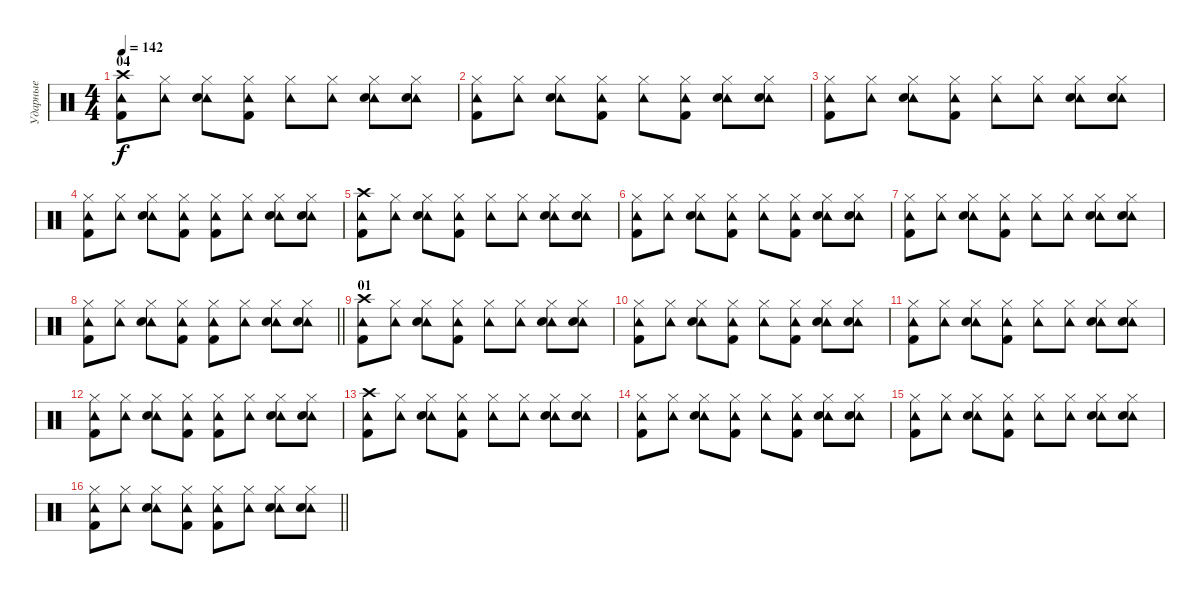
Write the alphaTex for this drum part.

\track ("Ударные" "Ударные") {instrument percussion}
\staff {score}
\articulation defaults
\ts (4 4)
\section ("" "04")
\tempo 142
\clef neutral
\ks c
("Crash high (hit)" "Tambourine (hit)" "Kick (hit) 2").8{dy f} ("Hi-Hat (closed)" "Tambourine (hit)").8 ("Hi-Hat (closed)" "Tambourine (hit)" "Electric Snare (hit)").8 ("Hi-Hat (closed)" "Tambourine (hit)" "Kick (hit) 2").8 ("Hi-Hat (closed)" "Tambourine (hit)").8 ("Hi-Hat (closed)" "Tambourine (hit)").8 ("Hi-Hat (closed)" "Tambourine (hit)" "Electric Snare (hit)").8 ("Hi-Hat (closed)" "Tambourine (hit)" "Electric Snare (hit)").8 |
("Hi-Hat (closed)" "Tambourine (hit)" "Kick (hit) 2").8 ("Hi-Hat (closed)" "Tambourine (hit)").8 ("Hi-Hat (closed)" "Tambourine (hit)" "Electric Snare (hit)").8 ("Hi-Hat (closed)" "Tambourine (hit)" "Kick (hit) 2").8 ("Hi-Hat (closed)" "Tambourine (hit)").8 ("Hi-Hat (closed)" "Tambourine (hit)" "Kick (hit) 2").8 ("Hi-Hat (closed)" "Tambourine (hit)" "Electric Snare (hit)").8 ("Hi-Hat (closed)" "Tambourine (hit)" "Electric Snare (hit)").8 |
("Hi-Hat (closed)" "Tambourine (hit)" "Kick (hit) 2").8 ("Hi-Hat (closed)" "Tambourine (hit)").8 ("Hi-Hat (closed)" "Tambourine (hit)" "Electric Snare (hit)").8 ("Hi-Hat (closed)" "Tambourine (hit)" "Kick (hit) 2").8 ("Hi-Hat (closed)" "Tambourine (hit)").8 ("Hi-Hat (closed)" "Tambourine (hit)").8 ("Hi-Hat (closed)" "Tambourine (hit)" "Electric Snare (hit)").8 ("Hi-Hat (closed)" "Tambourine (hit)" "Electric Snare (hit)").8 |
("Hi-Hat (closed)" "Tambourine (hit)" "Kick (hit) 2").8 ("Hi-Hat (closed)" "Tambourine (hit)").8 ("Hi-Hat (closed)" "Tambourine (hit)" "Electric Snare (hit)").8 ("Hi-Hat (closed)" "Tambourine (hit)" "Kick (hit) 2").8 ("Hi-Hat (closed)" "Tambourine (hit)" "Kick (hit) 2").8 ("Hi-Hat (closed)" "Tambourine (hit)").8 ("Hi-Hat (closed)" "Tambourine (hit)" "Electric Snare (hit)").8 ("Hi-Hat (closed)" "Tambourine (hit)" "Electric Snare (hit)").8 |
("Crash high (hit)" "Tambourine (hit)" "Kick (hit) 2").8 ("Hi-Hat (closed)" "Tambourine (hit)").8 ("Hi-Hat (closed)" "Tambourine (hit)" "Electric Snare (hit)").8 ("Hi-Hat (closed)" "Tambourine (hit)" "Kick (hit) 2").8 ("Hi-Hat (closed)" "Tambourine (hit)").8 ("Hi-Hat (closed)" "Tambourine (hit)").8 ("Hi-Hat (closed)" "Tambourine (hit)" "Electric Snare (hit)").8 ("Hi-Hat (closed)" "Tambourine (hit)" "Electric Snare (hit)").8 |
("Hi-Hat (closed)" "Tambourine (hit)" "Kick (hit) 2").8 ("Hi-Hat (closed)" "Tambourine (hit)").8 ("Hi-Hat (closed)" "Tambourine (hit)" "Electric Snare (hit)").8 ("Hi-Hat (closed)" "Tambourine (hit)" "Kick (hit) 2").8 ("Hi-Hat (closed)" "Tambourine (hit)").8 ("Hi-Hat (closed)" "Tambourine (hit)" "Kick (hit) 2").8 ("Hi-Hat (closed)" "Tambourine (hit)" "Electric Snare (hit)").8 ("Hi-Hat (closed)" "Tambourine (hit)" "Electric Snare (hit)").8 |
("Hi-Hat (closed)" "Tambourine (hit)" "Kick (hit) 2").8 ("Hi-Hat (closed)" "Tambourine (hit)").8 ("Hi-Hat (closed)" "Tambourine (hit)" "Electric Snare (hit)").8 ("Hi-Hat (closed)" "Tambourine (hit)" "Kick (hit) 2").8 ("Hi-Hat (closed)" "Tambourine (hit)").8 ("Hi-Hat (closed)" "Tambourine (hit)").8 ("Hi-Hat (closed)" "Tambourine (hit)" "Electric Snare (hit)").8 ("Hi-Hat (closed)" "Tambourine (hit)" "Electric Snare (hit)").8 |
\barLineRight lightlight
("Hi-Hat (closed)" "Tambourine (hit)" "Kick (hit) 2").8 ("Hi-Hat (closed)" "Tambourine (hit)").8 ("Hi-Hat (closed)" "Tambourine (hit)" "Electric Snare (hit)").8 ("Hi-Hat (closed)" "Tambourine (hit)" "Kick (hit) 2").8 ("Hi-Hat (closed)" "Tambourine (hit)" "Kick (hit) 2").8 ("Hi-Hat (closed)" "Tambourine (hit)").8 ("Hi-Hat (closed)" "Tambourine (hit)" "Electric Snare (hit)").8 ("Hi-Hat (closed)" "Tambourine (hit)" "Electric Snare (hit)").8 |
\section ("" "01")
("Crash high (hit)" "Tambourine (hit)" "Kick (hit) 2").8 ("Hi-Hat (closed)" "Tambourine (hit)").8 ("Hi-Hat (closed)" "Tambourine (hit)" "Electric Snare (hit)").8 ("Hi-Hat (closed)" "Tambourine (hit)" "Kick (hit) 2").8 ("Hi-Hat (closed)" "Tambourine (hit)").8 ("Hi-Hat (closed)" "Tambourine (hit)").8 ("Hi-Hat (closed)" "Tambourine (hit)" "Electric Snare (hit)").8 ("Hi-Hat (closed)" "Tambourine (hit)" "Electric Snare (hit)").8 |
("Hi-Hat (closed)" "Tambourine (hit)" "Kick (hit) 2").8 ("Hi-Hat (closed)" "Tambourine (hit)").8 ("Hi-Hat (closed)" "Tambourine (hit)" "Electric Snare (hit)").8 ("Hi-Hat (closed)" "Tambourine (hit)" "Kick (hit) 2").8 ("Hi-Hat (closed)" "Tambourine (hit)").8 ("Hi-Hat (closed)" "Tambourine (hit)" "Kick (hit) 2").8 ("Hi-Hat (closed)" "Tambourine (hit)" "Electric Snare (hit)").8 ("Hi-Hat (closed)" "Tambourine (hit)" "Electric Snare (hit)").8 |
("Hi-Hat (closed)" "Tambourine (hit)" "Kick (hit) 2").8 ("Hi-Hat (closed)" "Tambourine (hit)").8 ("Hi-Hat (closed)" "Tambourine (hit)" "Electric Snare (hit)").8 ("Hi-Hat (closed)" "Tambourine (hit)" "Kick (hit) 2").8 ("Hi-Hat (closed)" "Tambourine (hit)").8 ("Hi-Hat (closed)" "Tambourine (hit)").8 ("Hi-Hat (closed)" "Tambourine (hit)" "Electric Snare (hit)").8 ("Hi-Hat (closed)" "Tambourine (hit)" "Electric Snare (hit)").8 |
("Hi-Hat (closed)" "Tambourine (hit)" "Kick (hit) 2").8 ("Hi-Hat (closed)" "Tambourine (hit)").8 ("Hi-Hat (closed)" "Tambourine (hit)" "Electric Snare (hit)").8 ("Hi-Hat (closed)" "Tambourine (hit)" "Kick (hit) 2").8 ("Hi-Hat (closed)" "Tambourine (hit)" "Kick (hit) 2").8 ("Hi-Hat (closed)" "Tambourine (hit)").8 ("Hi-Hat (closed)" "Tambourine (hit)" "Electric Snare (hit)").8 ("Hi-Hat (closed)" "Tambourine (hit)" "Electric Snare (hit)").8 |
("Crash high (hit)" "Tambourine (hit)" "Kick (hit) 2").8 ("Hi-Hat (closed)" "Tambourine (hit)").8 ("Hi-Hat (closed)" "Tambourine (hit)" "Electric Snare (hit)").8 ("Hi-Hat (closed)" "Tambourine (hit)" "Kick (hit) 2").8 ("Hi-Hat (closed)" "Tambourine (hit)").8 ("Hi-Hat (closed)" "Tambourine (hit)").8 ("Hi-Hat (closed)" "Tambourine (hit)" "Electric Snare (hit)").8 ("Hi-Hat (closed)" "Tambourine (hit)" "Electric Snare (hit)").8 |
("Hi-Hat (closed)" "Tambourine (hit)" "Kick (hit) 2").8 ("Hi-Hat (closed)" "Tambourine (hit)").8 ("Hi-Hat (closed)" "Tambourine (hit)" "Electric Snare (hit)").8 ("Hi-Hat (closed)" "Tambourine (hit)" "Kick (hit) 2").8 ("Hi-Hat (closed)" "Tambourine (hit)").8 ("Hi-Hat (closed)" "Tambourine (hit)" "Kick (hit) 2").8 ("Hi-Hat (closed)" "Tambourine (hit)" "Electric Snare (hit)").8 ("Hi-Hat (closed)" "Tambourine (hit)" "Electric Snare (hit)").8 |
("Hi-Hat (closed)" "Tambourine (hit)" "Kick (hit) 2").8 ("Hi-Hat (closed)" "Tambourine (hit)").8 ("Hi-Hat (closed)" "Tambourine (hit)" "Electric Snare (hit)").8 ("Hi-Hat (closed)" "Tambourine (hit)" "Kick (hit) 2").8 ("Hi-Hat (closed)" "Tambourine (hit)").8 ("Hi-Hat (closed)" "Tambourine (hit)").8 ("Hi-Hat (closed)" "Tambourine (hit)" "Electric Snare (hit)").8 ("Hi-Hat (closed)" "Tambourine (hit)" "Electric Snare (hit)").8 |
\barLineRight lightlight
("Hi-Hat (closed)" "Tambourine (hit)" "Kick (hit) 2").8 ("Hi-Hat (closed)" "Tambourine (hit)").8 ("Hi-Hat (closed)" "Tambourine (hit)" "Electric Snare (hit)").8 ("Hi-Hat (closed)" "Tambourine (hit)" "Kick (hit) 2").8 ("Hi-Hat (closed)" "Tambourine (hit)" "Kick (hit) 2").8 ("Hi-Hat (closed)" "Tambourine (hit)").8 ("Hi-Hat (closed)" "Tambourine (hit)" "Electric Snare (hit)").8 ("Hi-Hat (closed)" "Tambourine (hit)" "Electric Snare (hit)").8
